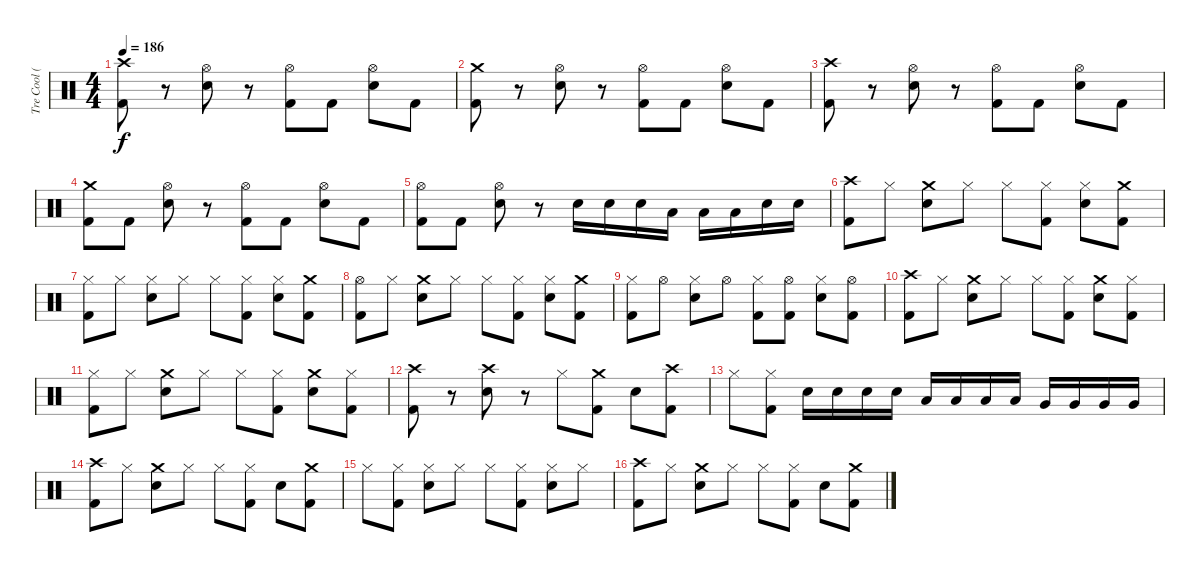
\track ("Tre Cool (Drums)" "Tre Cool (") {instrument percussion}
\staff {score}
\articulation defaults
\ts (4 4)
\tempo 186
\clef neutral
\ks c
("Kick (hit) 2" "Crash high (hit)").8{dy f} r.8 ("Snare (hit) 2" "Hi-Hat (open)").8 r.8 ("Kick (hit) 2" "Hi-Hat (open)").8 "Kick (hit) 2".8 ("Snare (hit) 2" "Hi-Hat (open)").8 "Kick (hit) 2".8 |
("Crash medium (hit)" "Kick (hit) 2").8 r.8 ("Hi-Hat (open)" "Snare (hit) 2").8 r.8 ("Hi-Hat (open)" "Kick (hit) 2").8 "Kick (hit) 2".8 ("Hi-Hat (open)" "Snare (hit) 2").8 "Kick (hit) 2".8 |
("Crash high (hit)" "Kick (hit) 2").8 r.8 ("Hi-Hat (open)" "Snare (hit) 2").8 r.8 ("Hi-Hat (open)" "Kick (hit) 2").8 "Kick (hit) 2".8 ("Hi-Hat (open)" "Snare (hit) 2").8 "Kick (hit) 2".8 |
("Kick (hit) 2" "Crash medium (hit)").8 "Kick (hit) 2".8 ("Snare (hit) 2" "Hi-Hat (open)").8 r.8 ("Kick (hit) 2" "Hi-Hat (open)").8 "Kick (hit) 2".8 ("Snare (hit) 2" "Hi-Hat (open)").8 "Kick (hit) 2".8 |
("Kick (hit) 2" "Hi-Hat (open)").8 "Kick (hit) 2".8 ("Snare (hit) 2" "Hi-Hat (open)").8 r.8 "Snare (hit) 2".16 "Snare (hit) 2".16 "Snare (hit) 2".16 "Low Tom (hit)".16 "Low Tom (hit)".16 "Low Tom (hit)".16 "Snare (hit) 2".16 "Snare (hit) 2".16 |
("Kick (hit) 2" "Crash high (hit)").8 "Hi-Hat (closed)".8 ("Snare (hit) 2" "Crash medium (hit)").8 "Hi-Hat (closed)".8 "Hi-Hat (closed)".8 ("Kick (hit) 2" "Hi-Hat (closed)").8 ("Snare (hit) 2" "Hi-Hat (closed)").8 ("Kick (hit) 2" "Crash medium (hit)").8 |
("Kick (hit) 2" "Hi-Hat (closed)").8 "Hi-Hat (closed)".8 ("Snare (hit) 2" "Hi-Hat (closed)").8 "Hi-Hat (closed)".8 "Hi-Hat (closed)".8 ("Kick (hit) 2" "Hi-Hat (closed)").8 ("Snare (hit) 2" "Hi-Hat (closed)").8 ("Kick (hit) 2" "Crash medium (hit)").8 |
("Kick (hit) 2" "Hi-Hat (open)").8 "Hi-Hat (closed)".8 ("Snare (hit) 2" "Crash medium (hit)").8 "Hi-Hat (closed)".8 "Hi-Hat (closed)".8 ("Kick (hit) 2" "Hi-Hat (closed)").8 ("Snare (hit) 2" "Hi-Hat (closed)").8 ("Kick (hit) 2" "Crash medium (hit)").8 |
("Hi-Hat (closed)" "Kick (hit) 2").8 "Hi-Hat (open)".8 ("Hi-Hat (closed)" "Electric Snare (hit)").8 "Hi-Hat (open)".8 ("Hi-Hat (closed)" "Kick (hit) 2").8 ("Hi-Hat (open)" "Kick (hit) 2").8 ("Hi-Hat (closed)" "Electric Snare (hit)").8 ("Hi-Hat (open)" "Kick (hit) 2").8 |
("Kick (hit) 2" "Crash high (hit)").8 "Hi-Hat (closed)".8 ("Snare (hit) 2" "Crash medium (hit)").8 "Hi-Hat (closed)".8 "Hi-Hat (closed)".8 ("Kick (hit) 2" "Hi-Hat (closed)").8 ("Snare (hit) 2" "Crash medium (hit)").8 ("Kick (hit) 2" "Hi-Hat (closed)").8 |
("Kick (hit) 2" "Hi-Hat (closed)").8 "Hi-Hat (closed)".8 ("Snare (hit) 2" "Crash medium (hit)").8 "Hi-Hat (closed)".8 "Hi-Hat (closed)".8 ("Kick (hit) 2" "Hi-Hat (closed)").8 ("Snare (hit) 2" "Crash medium (hit)").8 ("Kick (hit) 2" "Hi-Hat (closed)").8 |
("Kick (hit) 2" "Crash high (hit)").8 r.8 ("Snare (hit) 2" "Crash high (hit)").8 r.8 "Hi-Hat (closed)".8 ("Kick (hit) 2" "Crash medium (hit)").8 "Snare (hit) 2".8 ("Kick (hit) 2" "Crash high (hit)").8 |
"Hi-Hat (closed)".8 ("Kick (hit) 2" "Hi-Hat (closed)").8 "Snare (hit) 2".16 "Snare (hit) 2".16 "Snare (hit) 2".16 "Snare (hit) 2".16 "Low Tom (hit)".16 "Low Tom (hit)".16 "Low Tom (hit)".16 "Low Tom (hit)".16 "Very Low Tom (hit)".16 "Very Low Tom (hit)".16 "Very Low Tom (hit)".16 "Very Low Tom (hit)".16 |
("Kick (hit) 2" "Crash high (hit)").8 "Hi-Hat (closed)".8 ("Snare (hit) 2" "Crash medium (hit)").8 "Hi-Hat (closed)".8 "Hi-Hat (closed)".8 ("Kick (hit) 2" "Hi-Hat (closed)").8 "Snare (hit) 2".8 ("Kick (hit) 2" "Crash medium (hit)").8 |
"Hi-Hat (closed)".8 ("Kick (hit) 2" "Hi-Hat (closed)").8 ("Hi-Hat (closed)" "Snare (hit) 2").8 "Hi-Hat (closed)".8 "Hi-Hat (closed)".8 ("Kick (hit) 2" "Hi-Hat (closed)").8 ("Hi-Hat (closed)" "Snare (hit) 2").8 "Hi-Hat (closed)".8 |
("Kick (hit) 2" "Crash high (hit)").8 "Hi-Hat (closed)".8 ("Snare (hit) 2" "Crash medium (hit)").8 "Hi-Hat (closed)".8 "Hi-Hat (closed)".8 ("Kick (hit) 2" "Hi-Hat (closed)").8 "Snare (hit) 2".8 ("Kick (hit) 2" "Crash medium (hit)").8
